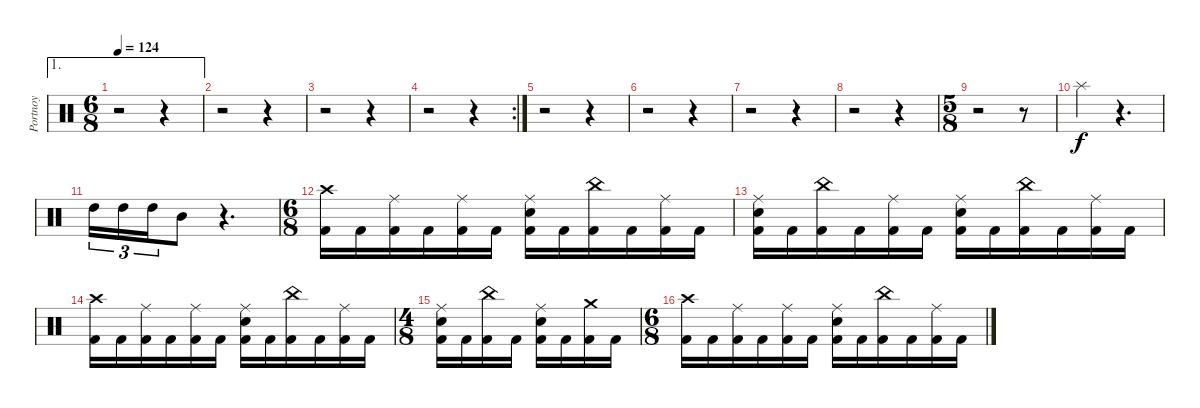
\track ("Portnoy" "Portnoy") {instrument percussion}
\staff {score}
\articulation defaults
\ae 1
\ts (6 8)
\tempo 124
\clef neutral
\ks c
r.2{dy f} r.4 |
r.2 r.4 |
r.2 r.4 |
\rc 2
r.2 r.4 |
r.2 r.4 |
r.2 r.4 |
r.2 r.4 |
r.2 r.4 |
\ts (5 8)
r.2 r.8 |
"Splash (hit)".4 r.4{d} |
"High Tom (hit)".16{tu (3 2)} "High Tom (hit)".16{tu (3 2)} "High Tom (hit)".16{tu (3 2) beam merge} "Mid Tom (hit)".8 r.4{d} |
\ts (6 8)
("Crash high (hit)" "Kick (hit) 2").16 "Kick (hit) 2".16 ("Ride (middle)" "Kick (hit) 2").16 "Kick (hit) 2".16 ("Ride (middle)" "Kick (hit) 2").16 "Kick (hit) 2".16 ("Ride (middle)" "Electric Snare (hit)" "Kick (hit) 2").16 "Kick (hit) 2".16 ("China (hit)" "Kick (hit) 2").16 "Kick (hit) 2".16 ("Ride (middle)" "Kick (hit) 2").16 "Kick (hit) 2".16 |
("Ride (middle)" "Electric Snare (hit)" "Kick (hit) 2").16 "Kick (hit) 2".16 ("China (hit)" "Kick (hit) 2").16 "Kick (hit) 2".16 ("Ride (middle)" "Kick (hit) 2").16 "Kick (hit) 2".16 ("Ride (middle)" "Electric Snare (hit)" "Kick (hit) 2").16 "Kick (hit) 2".16 ("China (hit)" "Kick (hit) 2").16 "Kick (hit) 2".16 ("Ride (middle)" "Kick (hit) 2").16 "Kick (hit) 2".16 |
("Crash high (hit)" "Kick (hit) 2").16 "Kick (hit) 2".16 ("Ride (middle)" "Kick (hit) 2").16 "Kick (hit) 2".16 ("Ride (middle)" "Kick (hit) 2").16 "Kick (hit) 2".16 ("Ride (middle)" "Electric Snare (hit)" "Kick (hit) 2").16 "Kick (hit) 2".16 ("China (hit)" "Kick (hit) 2").16 "Kick (hit) 2".16 ("Ride (middle)" "Kick (hit) 2").16 "Kick (hit) 2".16 |
\ts (4 8)
("Ride (middle)" "Electric Snare (hit)" "Kick (hit) 2").16 "Kick (hit) 2".16{beam merge} ("China (hit)" "Kick (hit) 2").16 "Kick (hit) 2".16{beam split} ("Ride (middle)" "Electric Snare (hit)" "Kick (hit) 2").16 "Kick (hit) 2".16{beam merge} ("Crash medium (hit)" "Kick (hit) 2").16 "Kick (hit) 2".16 |
\ts (6 8)
("Crash high (hit)" "Kick (hit) 2").16 "Kick (hit) 2".16 ("Ride (middle)" "Kick (hit) 2").16 "Kick (hit) 2".16 ("Ride (middle)" "Kick (hit) 2").16 "Kick (hit) 2".16 ("Ride (middle)" "Electric Snare (hit)" "Kick (hit) 2").16 "Kick (hit) 2".16 ("China (hit)" "Kick (hit) 2").16 "Kick (hit) 2".16 ("Ride (middle)" "Kick (hit) 2").16 "Kick (hit) 2".16
